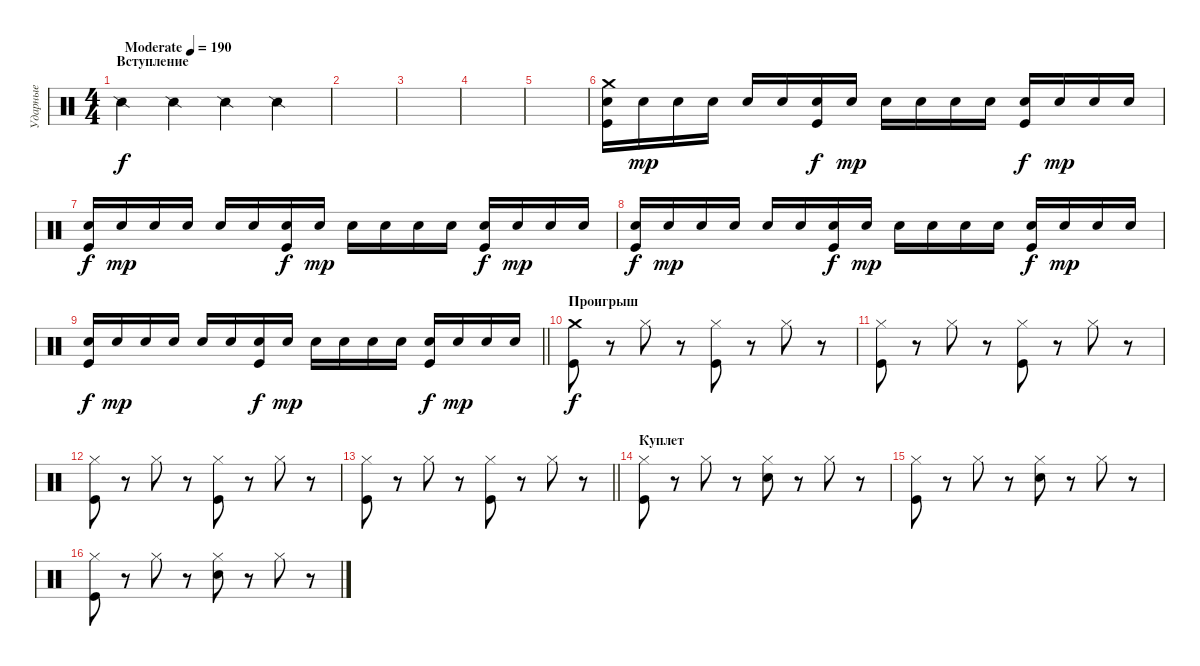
\track ("Ударные" "Ударные") {instrument percussion}
\staff {score}
\articulation defaults
\ts (4 4)
\section ("" "Вступление")
\tempo (190 "Moderate")
\clef neutral
\ks c "Snare (side stick) 2".4{dy f} "Snare (side stick) 2".4 "Snare (side stick) 2".4 "Snare (side stick) 2".4
|
|
|
|
|
("Crash medium (hit)" "Electric Snare (hit)" "Kick (hit)").16 "Electric Snare (hit)".16{dy mp} "Electric Snare (hit)".16 "Electric Snare (hit)".16 "Electric Snare (hit)".16 "Electric Snare (hit)".16 ("Electric Snare (hit)" "Kick (hit)").16{dy f} "Electric Snare (hit)".16{dy mp} "Electric Snare (hit)".16 "Electric Snare (hit)".16 "Electric Snare (hit)".16 "Electric Snare (hit)".16 ("Electric Snare (hit)" "Kick (hit)").16{dy f} "Electric Snare (hit)".16{dy mp} "Electric Snare (hit)".16 "Electric Snare (hit)".16 |
("Electric Snare (hit)" "Kick (hit)").16{dy f} "Electric Snare (hit)".16{dy mp} "Electric Snare (hit)".16 "Electric Snare (hit)".16 "Electric Snare (hit)".16 "Electric Snare (hit)".16 ("Electric Snare (hit)" "Kick (hit)").16{dy f} "Electric Snare (hit)".16{dy mp} "Electric Snare (hit)".16 "Electric Snare (hit)".16 "Electric Snare (hit)".16 "Electric Snare (hit)".16 ("Electric Snare (hit)" "Kick (hit)").16{dy f} "Electric Snare (hit)".16{dy mp} "Electric Snare (hit)".16 "Electric Snare (hit)".16 |
("Electric Snare (hit)" "Kick (hit)").16{dy f} "Electric Snare (hit)".16{dy mp} "Electric Snare (hit)".16 "Electric Snare (hit)".16 "Electric Snare (hit)".16 "Electric Snare (hit)".16 ("Electric Snare (hit)" "Kick (hit)").16{dy f} "Electric Snare (hit)".16{dy mp} "Electric Snare (hit)".16 "Electric Snare (hit)".16 "Electric Snare (hit)".16 "Electric Snare (hit)".16 ("Electric Snare (hit)" "Kick (hit)").16{dy f} "Electric Snare (hit)".16{dy mp} "Electric Snare (hit)".16 "Electric Snare (hit)".16 |
\barLineRight lightlight
("Electric Snare (hit)" "Kick (hit)").16{dy f} "Electric Snare (hit)".16{dy mp} "Electric Snare (hit)".16 "Electric Snare (hit)".16 "Electric Snare (hit)".16 "Electric Snare (hit)".16 ("Electric Snare (hit)" "Kick (hit)").16{dy f} "Electric Snare (hit)".16{dy mp} "Electric Snare (hit)".16 "Electric Snare (hit)".16 "Electric Snare (hit)".16 "Electric Snare (hit)".16 ("Electric Snare (hit)" "Kick (hit)").16{dy f} "Electric Snare (hit)".16{dy mp} "Electric Snare (hit)".16 "Electric Snare (hit)".16 |
\section ("" "Проигрыш")
("Crash medium (hit)" "Kick (hit)").8{dy f} r.8 "Hi-Hat (closed)".8 r.8 ("Hi-Hat (closed)" "Kick (hit)").8 r.8 "Hi-Hat (closed)".8 r.8 |
("Hi-Hat (closed)" "Kick (hit)").8 r.8 "Hi-Hat (closed)".8 r.8 ("Hi-Hat (closed)" "Kick (hit)").8 r.8 "Hi-Hat (closed)".8 r.8 |
("Hi-Hat (closed)" "Kick (hit)").8 r.8 "Hi-Hat (closed)".8 r.8 ("Hi-Hat (closed)" "Kick (hit)").8 r.8 "Hi-Hat (closed)".8 r.8 |
\barLineRight lightlight
("Hi-Hat (closed)" "Kick (hit)").8 r.8 "Hi-Hat (closed)".8 r.8 ("Hi-Hat (closed)" "Kick (hit)").8 r.8 "Hi-Hat (closed)".8 r.8 |
\section ("" "Куплет")
("Hi-Hat (closed)" "Kick (hit)").8 r.8 "Hi-Hat (closed)".8 r.8 ("Hi-Hat (closed)" "Electric Snare (hit)").8 r.8 "Hi-Hat (closed)".8 r.8 |
("Hi-Hat (closed)" "Kick (hit)").8 r.8 "Hi-Hat (closed)".8 r.8 ("Hi-Hat (closed)" "Electric Snare (hit)").8 r.8 "Hi-Hat (closed)".8 r.8 |
("Hi-Hat (closed)" "Kick (hit)").8 r.8 "Hi-Hat (closed)".8 r.8 ("Hi-Hat (closed)" "Electric Snare (hit)").8 r.8 "Hi-Hat (closed)".8 r.8
